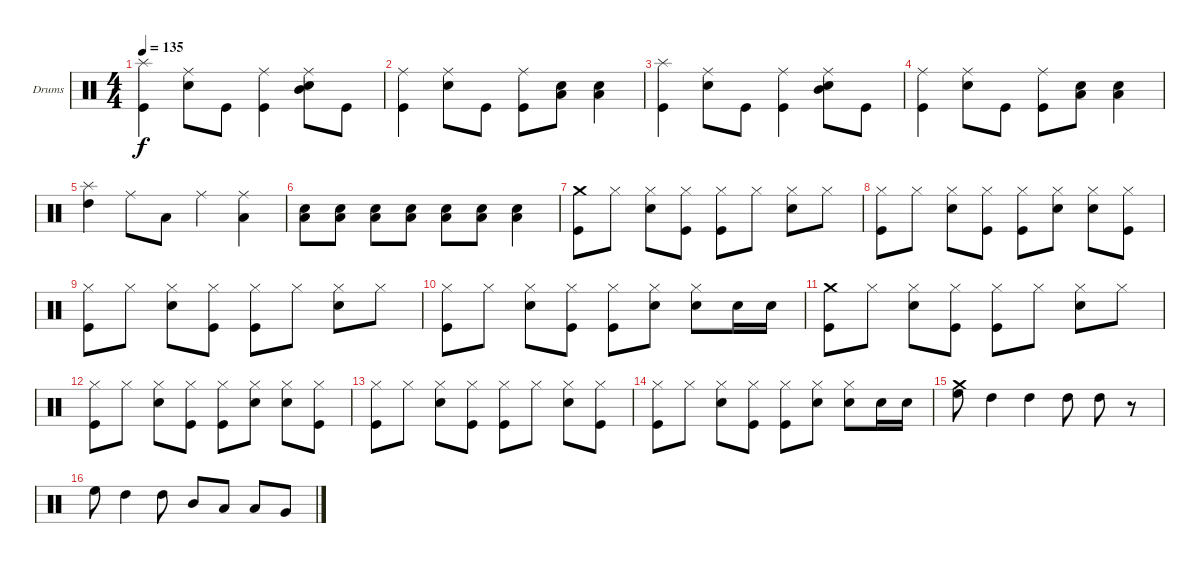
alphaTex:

\bracketExtendMode groupsimilarinstruments
\firstSystemTrackNameOrientation horizontal
\otherSystemsTrackNameOrientation horizontal
\track ("Drumkit" "Drums") {instrument percussion}
\staff {score}
\articulation defaults
\ts (4 4)
\tempo 135
\clef neutral
\ks c
("Splash (hit)" "Kick (hit)").4{dy f} ("Ride (middle)" "Snare (hit) 2").8 "Kick (hit)".8 ("Ride (middle)" "Kick (hit)").4 ("Ride (middle)" "Mid Tom (hit)" "Snare (hit) 2").8 "Kick (hit)".8 |
("Ride (middle)" "Kick (hit)").4 ("Ride (middle)" "Snare (hit) 2").8 "Kick (hit)".8 ("Ride (middle)" "Kick (hit)").8 ("Low Tom (hit)" "Snare (hit) 2").8 ("Low Tom (hit)" "Snare (hit) 2").4 |
("Splash (hit)" "Kick (hit)").4 ("Ride (middle)" "Snare (hit) 2").8 "Kick (hit)".8 ("Ride (middle)" "Kick (hit)").4 ("Ride (middle)" "Mid Tom (hit)" "Snare (hit) 2").8 "Kick (hit)".8 |
("Ride (middle)" "Kick (hit)").4 ("Ride (middle)" "Snare (hit) 2").8 "Kick (hit)".8 ("Ride (middle)" "Kick (hit)").8 ("Low Tom (hit)" "Snare (hit) 2").8 ("Low Tom (hit)" "Snare (hit) 2").4 |
("Splash (hit)" "High Tom (hit)").4 "Ride (middle)".8 "Low Tom (hit)".8 "Ride (middle)".4 ("Ride (middle)" "Low Tom (hit)").4 |
("Low Tom (hit)" "Snare (hit) 2").8 ("Low Tom (hit)" "Snare (hit) 2").8 ("Low Tom (hit)" "Snare (hit) 2").8 ("Low Tom (hit)" "Snare (hit) 2").8 ("Low Tom (hit)" "Snare (hit) 2").8 ("Low Tom (hit)" "Snare (hit) 2").8 ("Low Tom (hit)" "Snare (hit) 2").4 |
("Crash medium (hit)" "Kick (hit)").8 "Hi-Hat (closed)".8 ("Hi-Hat (closed)" "Snare (hit) 2").8 ("Hi-Hat (closed)" "Kick (hit)").8 ("Hi-Hat (closed)" "Kick (hit)").8 "Hi-Hat (closed)".8 ("Hi-Hat (closed)" "Snare (hit) 2").8 "Hi-Hat (closed)".8 |
("Hi-Hat (closed)" "Kick (hit)").8 "Hi-Hat (closed)".8 ("Hi-Hat (closed)" "Snare (hit) 2").8 ("Hi-Hat (closed)" "Kick (hit)").8 ("Hi-Hat (closed)" "Kick (hit)").8 ("Hi-Hat (closed)" "Snare (hit) 2").8 ("Hi-Hat (closed)" "Snare (hit) 2").8 ("Hi-Hat (closed)" "Kick (hit)").8 |
("Hi-Hat (closed)" "Kick (hit)").8 "Hi-Hat (closed)".8 ("Hi-Hat (closed)" "Snare (hit) 2").8 ("Hi-Hat (closed)" "Kick (hit)").8 ("Hi-Hat (closed)" "Kick (hit)").8 "Hi-Hat (closed)".8 ("Hi-Hat (closed)" "Snare (hit) 2").8 "Hi-Hat (closed)".8 |
("Hi-Hat (closed)" "Kick (hit)").8 "Hi-Hat (closed)".8 ("Hi-Hat (closed)" "Snare (hit) 2").8 ("Hi-Hat (closed)" "Kick (hit)").8 ("Hi-Hat (closed)" "Kick (hit)").8 ("Hi-Hat (closed)" "Snare (hit) 2").8 ("Hi-Hat (closed)" "Snare (hit) 2").8 "Snare (hit) 2".16 "Snare (hit) 2".16 |
("Crash medium (hit)" "Kick (hit)").8 "Hi-Hat (closed)".8 ("Hi-Hat (closed)" "Snare (hit) 2").8 ("Hi-Hat (closed)" "Kick (hit)").8 ("Hi-Hat (closed)" "Kick (hit)").8 "Hi-Hat (closed)".8 ("Hi-Hat (closed)" "Snare (hit) 2").8 "Hi-Hat (closed)".8 |
("Hi-Hat (closed)" "Kick (hit)").8 "Hi-Hat (closed)".8 ("Hi-Hat (closed)" "Snare (hit) 2").8 ("Hi-Hat (closed)" "Kick (hit)").8 ("Hi-Hat (closed)" "Kick (hit)").8 ("Hi-Hat (closed)" "Snare (hit) 2").8 ("Hi-Hat (closed)" "Snare (hit) 2").8 ("Hi-Hat (closed)" "Kick (hit)").8 |
("Hi-Hat (closed)" "Kick (hit)").8 "Hi-Hat (closed)".8 ("Hi-Hat (closed)" "Snare (hit) 2").8 ("Hi-Hat (closed)" "Kick (hit)").8 ("Hi-Hat (closed)" "Kick (hit)").8 "Hi-Hat (closed)".8 ("Hi-Hat (closed)" "Snare (hit) 2").8 ("Hi-Hat (closed)" "Kick (hit)").8 |
("Hi-Hat (closed)" "Kick (hit)").8 "Hi-Hat (closed)".8 ("Hi-Hat (closed)" "Snare (hit) 2").8 ("Hi-Hat (closed)" "Kick (hit)").8 ("Hi-Hat (closed)" "Kick (hit)").8 ("Hi-Hat (closed)" "Snare (hit) 2").8 ("Hi-Hat (closed)" "Snare (hit) 2").8 "Snare (hit) 2".16 "Snare (hit) 2".16 |
("Crash medium (hit)" "High Floor Tom (hit)").8 "High Tom (hit)".4 "High Tom (hit)".4 "High Tom (hit)".8 "High Tom (hit)".8 r.8 |
"High Floor Tom (hit)".8 "High Tom (hit)".4 "High Tom (hit)".8 "Mid Tom (hit)".8 "Low Tom (hit)".8 "Low Tom (hit)".8 "Very Low Tom (hit)".8
